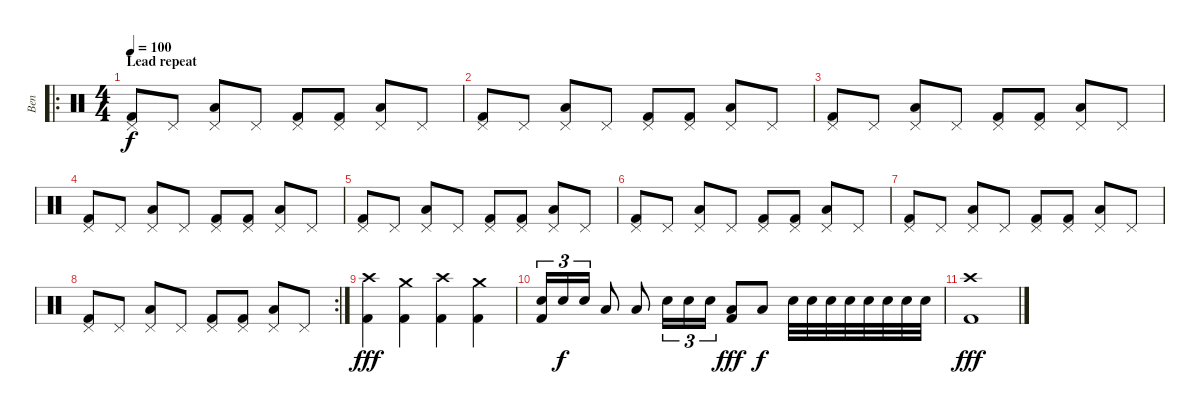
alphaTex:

\track ("Ben" "Ben") {instrument percussion}
\staff {score}
\articulation defaults
\ro
\ts (4 4)
\section ("" "Lead repeat")
\tempo 100
\clef neutral
\ks c
("Pedal Hi-Hat (hit)" "Kick (hit) 2").8{dy f} "Pedal Hi-Hat (hit)".8 ("Pedal Hi-Hat (hit)" "Low Floor Tom (hit)").8 "Pedal Hi-Hat (hit)".8 ("Pedal Hi-Hat (hit)" "Kick (hit) 2").8 ("Pedal Hi-Hat (hit)" "Kick (hit) 2").8 ("Pedal Hi-Hat (hit)" "Low Floor Tom (hit)").8 "Pedal Hi-Hat (hit)".8 |
("Pedal Hi-Hat (hit)" "Kick (hit) 2").8 "Pedal Hi-Hat (hit)".8 ("Pedal Hi-Hat (hit)" "Low Floor Tom (hit)").8 "Pedal Hi-Hat (hit)".8 ("Pedal Hi-Hat (hit)" "Kick (hit) 2").8 ("Pedal Hi-Hat (hit)" "Kick (hit) 2").8 ("Pedal Hi-Hat (hit)" "Low Floor Tom (hit)").8 "Pedal Hi-Hat (hit)".8 |
("Pedal Hi-Hat (hit)" "Kick (hit) 2").8 "Pedal Hi-Hat (hit)".8 ("Pedal Hi-Hat (hit)" "Low Floor Tom (hit)").8 "Pedal Hi-Hat (hit)".8 ("Pedal Hi-Hat (hit)" "Kick (hit) 2").8 ("Pedal Hi-Hat (hit)" "Kick (hit) 2").8 ("Pedal Hi-Hat (hit)" "Low Floor Tom (hit)").8 "Pedal Hi-Hat (hit)".8 |
("Pedal Hi-Hat (hit)" "Kick (hit) 2").8 "Pedal Hi-Hat (hit)".8 ("Pedal Hi-Hat (hit)" "Low Floor Tom (hit)").8 "Pedal Hi-Hat (hit)".8 ("Pedal Hi-Hat (hit)" "Kick (hit) 2").8 ("Pedal Hi-Hat (hit)" "Kick (hit) 2").8 ("Pedal Hi-Hat (hit)" "Low Floor Tom (hit)").8 "Pedal Hi-Hat (hit)".8 |
("Pedal Hi-Hat (hit)" "Kick (hit) 2").8 "Pedal Hi-Hat (hit)".8 ("Pedal Hi-Hat (hit)" "Low Floor Tom (hit)").8 "Pedal Hi-Hat (hit)".8 ("Pedal Hi-Hat (hit)" "Kick (hit) 2").8 ("Pedal Hi-Hat (hit)" "Kick (hit) 2").8 ("Pedal Hi-Hat (hit)" "Low Floor Tom (hit)").8 "Pedal Hi-Hat (hit)".8 |
("Pedal Hi-Hat (hit)" "Kick (hit) 2").8 "Pedal Hi-Hat (hit)".8 ("Pedal Hi-Hat (hit)" "Low Floor Tom (hit)").8 "Pedal Hi-Hat (hit)".8 ("Pedal Hi-Hat (hit)" "Kick (hit) 2").8 ("Pedal Hi-Hat (hit)" "Kick (hit) 2").8 ("Pedal Hi-Hat (hit)" "Low Floor Tom (hit)").8 "Pedal Hi-Hat (hit)".8 |
("Pedal Hi-Hat (hit)" "Kick (hit) 2").8 "Pedal Hi-Hat (hit)".8 ("Pedal Hi-Hat (hit)" "Low Floor Tom (hit)").8 "Pedal Hi-Hat (hit)".8 ("Pedal Hi-Hat (hit)" "Kick (hit) 2").8 ("Pedal Hi-Hat (hit)" "Kick (hit) 2").8 ("Pedal Hi-Hat (hit)" "Low Floor Tom (hit)").8 "Pedal Hi-Hat (hit)".8 |
\rc 2
("Pedal Hi-Hat (hit)" "Kick (hit) 2").8 "Pedal Hi-Hat (hit)".8 ("Pedal Hi-Hat (hit)" "Low Floor Tom (hit)").8 "Pedal Hi-Hat (hit)".8 ("Pedal Hi-Hat (hit)" "Kick (hit) 2").8 ("Pedal Hi-Hat (hit)" "Kick (hit) 2").8 ("Pedal Hi-Hat (hit)" "Low Floor Tom (hit)").8 "Pedal Hi-Hat (hit)".8 |
("Crash high (hit)" "Kick (hit) 2").4{dy fff} ("Crash medium (hit)" "Kick (hit) 2").4 ("Crash high (hit)" "Kick (hit) 2").4 ("Crash medium (hit)" "Kick (hit) 2").4 |
("Snare (hit) 2" "Kick (hit) 2").16{tu (3 2)} "Snare (hit) 2".16{tu (3 2) dy f} "Snare (hit) 2".16{tu (3 2)} "Low Tom (hit)".8 "Low Tom (hit)".8 "Snare (hit) 2".16{tu (3 2)} "Snare (hit) 2".16{tu (3 2)} "Snare (hit) 2".16{tu (3 2)} ("Low Tom (hit)" "Kick (hit) 2").8{dy fff} "Low Tom (hit)".8{dy f} "Snare (hit) 2".32 "Snare (hit) 2".32 "Snare (hit) 2".32 "Snare (hit) 2".32 "Snare (hit) 2".32 "Snare (hit) 2".32 "Snare (hit) 2".32 "Snare (hit) 2".32 |
("Crash high (hit)" "Kick (hit) 2").1{dy fff}
